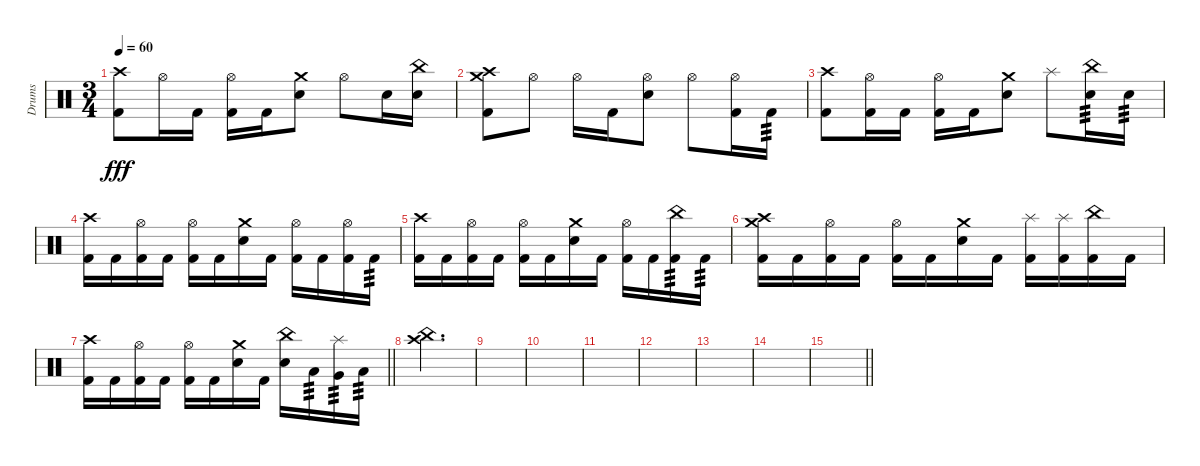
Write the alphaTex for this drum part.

\track ("Drums" "Drums") {instrument percussion}
\staff {score}
\articulation defaults
\ts (3 4)
\tempo 60
\clef neutral
\ks c
("Kick (hit) 2" "Crash high (hit)").8{dy fff} "Hi-Hat (open)".16 "Kick (hit) 2".16 ("Kick (hit) 2" "Hi-Hat (open)").16 "Kick (hit) 2".16 ("Electric Snare (hit)" "Crash medium (hit)").8 "Hi-Hat (open)".8 "Electric Snare (hit)".16 ("Electric Snare (hit)" "China (hit)").16 |
("Kick (hit) 2" "Crash high (hit)" "Crash medium (hit)").8 "Hi-Hat (open)".8 "Hi-Hat (open)".16 "Kick (hit) 2".16 ("Electric Snare (hit)" "Hi-Hat (open)").8 "Hi-Hat (open)".8 ("Kick (hit) 2" "Hi-Hat (open)").16 "Kick (hit) 2".16{tp 3} |
("Kick (hit) 2" "Crash high (hit)").8 ("Kick (hit) 2" "Hi-Hat (open)").16 "Kick (hit) 2".16 ("Kick (hit) 2" "Hi-Hat (open)").16 "Kick (hit) 2".16 ("Electric Snare (hit)" "Crash medium (hit)").8 "Splash (hit)".8 ("Electric Snare (hit)" "China (hit)").16{tp 3} "Electric Snare (hit)".16{tp 3} |
("Kick (hit) 2" "Crash high (hit)").16 "Kick (hit) 2".16 ("Kick (hit) 2" "Hi-Hat (open)").16 "Kick (hit) 2".16 ("Kick (hit) 2" "Hi-Hat (open)").16 "Kick (hit) 2".16 ("Electric Snare (hit)" "Crash medium (hit)").16 "Kick (hit) 2".16 ("Kick (hit) 2" "Hi-Hat (open)").16 "Kick (hit) 2".16 ("Kick (hit) 2" "Hi-Hat (open)").16 "Kick (hit) 2".16{tp 3} |
("Kick (hit) 2" "Crash high (hit)").16 "Kick (hit) 2".16 ("Kick (hit) 2" "Hi-Hat (open)").16 "Kick (hit) 2".16 ("Kick (hit) 2" "Hi-Hat (open)").16 "Kick (hit) 2".16 ("Electric Snare (hit)" "Crash medium (hit)").16 "Kick (hit) 2".16 ("Kick (hit) 2" "Hi-Hat (open)").16 "Kick (hit) 2".16 ("Kick (hit) 2" "China (hit)").16{tp 3} "Kick (hit) 2".16{tp 3} |
("Kick (hit) 2" "Crash high (hit)" "Crash medium (hit)").16 "Kick (hit) 2".16 ("Kick (hit) 2" "Hi-Hat (open)").16 "Kick (hit) 2".16 ("Kick (hit) 2" "Hi-Hat (open)").16 "Kick (hit) 2".16 ("Electric Snare (hit)" "Crash medium (hit)").16 "Kick (hit) 2".16 ("Kick (hit) 2" "Splash (hit)").16 ("Kick (hit) 2" "Splash (hit)").16 ("Kick (hit) 2" "China (hit)").16 "Kick (hit) 2".16 |
\barLineRight lightlight
("Kick (hit) 2" "Crash high (hit)").16 "Kick (hit) 2".16 ("Kick (hit) 2" "Hi-Hat (open)").16 "Kick (hit) 2".16 ("Kick (hit) 2" "Hi-Hat (open)").16 "Kick (hit) 2".16 ("Electric Snare (hit)" "Crash medium (hit)").16 "Kick (hit) 2".16 ("Electric Snare (hit)" "China (hit)").16 "Low Tom (hit)".16{tp 3} ("Very Low Tom (hit)" "Splash (hit)").16{tp 3} "Low Floor Tom (hit)".16{tp 3} |
("Crash high (hit)" "China (hit)").2{d} |
|
|
|
|
|
|
\barLineRight lightlight
